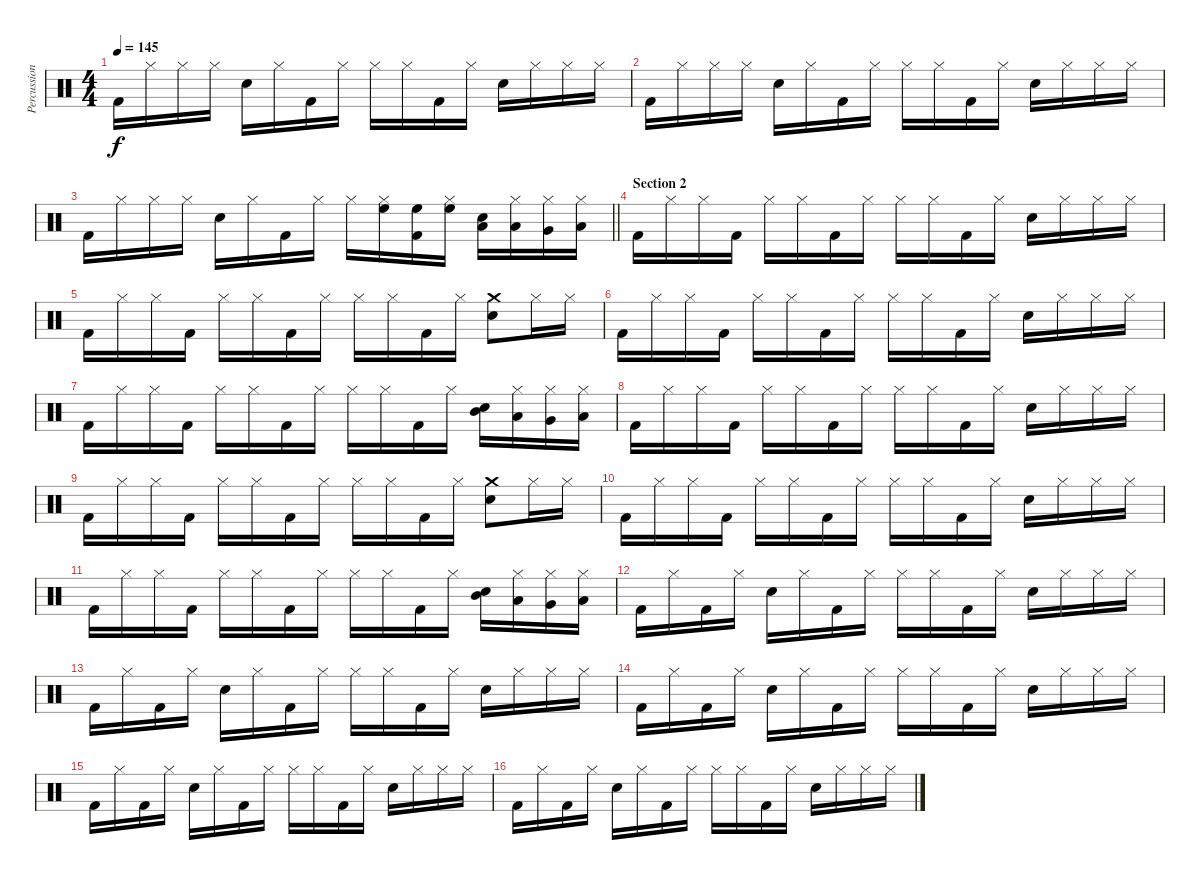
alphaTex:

\track ("Percussion" "Percussion") {instrument percussion}
\staff {score}
\articulation defaults
\ts (4 4)
\tempo 145
\clef neutral
\ks c "Kick (hit) 2".16{dy f} "Hi-Hat (closed)".16 "Hi-Hat (closed)".16 "Hi-Hat (closed)".16 "Snare (hit) 2".16 "Hi-Hat (closed)".16 "Kick (hit) 2".16 "Hi-Hat (closed)".16 "Hi-Hat (closed)".16 "Hi-Hat (closed)".16 "Kick (hit) 2".16 "Hi-Hat (closed)".16 "Snare (hit) 2".16 "Hi-Hat (closed)".16 "Hi-Hat (closed)".16 "Hi-Hat (closed)".16
|
"Kick (hit) 2".16 "Hi-Hat (closed)".16 "Hi-Hat (closed)".16 "Hi-Hat (closed)".16 "Snare (hit) 2".16 "Hi-Hat (closed)".16 "Kick (hit) 2".16 "Hi-Hat (closed)".16 "Hi-Hat (closed)".16 "Hi-Hat (closed)".16 "Kick (hit) 2".16 "Hi-Hat (closed)".16 "Snare (hit) 2".16 "Hi-Hat (closed)".16 "Hi-Hat (closed)".16 "Hi-Hat (closed)".16 |
\barLineRight lightlight "Kick (hit) 2".16 "Hi-Hat (closed)".16 "Hi-Hat (closed)".16 "Hi-Hat (closed)".16 "Snare (hit) 2".16 "Hi-Hat (closed)".16 "Kick (hit) 2".16 "Hi-Hat (closed)".16 "Hi-Hat (closed)".16
("High Floor Tom (hit)" "Hi-Hat (closed)").16 ("High Floor Tom (hit)" "Kick (hit) 2").16 ("High Floor Tom (hit)" "Hi-Hat (closed)").16 ("Low Tom (hit)" "Snare (hit) 2").16 ("Low Tom (hit)" "Hi-Hat (closed)").16 ("Very Low Tom (hit)" "Hi-Hat (closed)").16 ("Low Floor Tom (hit)" "Hi-Hat (closed)").16 |
\section ("" "Section 2")
"Kick (hit) 2".16 "Hi-Hat (closed)".16 "Hi-Hat (closed)".16 "Kick (hit) 2".16 "Hi-Hat (closed)".16 "Hi-Hat (closed)".16 "Kick (hit) 2".16 "Hi-Hat (closed)".16 "Hi-Hat (closed)".16 "Hi-Hat (closed)".16 "Kick (hit) 2".16 "Hi-Hat (closed)".16 "Snare (hit) 2".16 "Hi-Hat (closed)".16 "Hi-Hat (closed)".16 "Hi-Hat (closed)".16 |
"Kick (hit) 2".16 "Hi-Hat (closed)".16 "Hi-Hat (closed)".16 "Kick (hit) 2".16 "Hi-Hat (closed)".16 "Hi-Hat (closed)".16 "Kick (hit) 2".16 "Hi-Hat (closed)".16 "Hi-Hat (closed)".16 "Hi-Hat (closed)".16 "Kick (hit) 2".16 "Hi-Hat (closed)".16 ("Crash medium (hit)" "Snare (hit) 2").8 "Hi-Hat (closed)".16 "Hi-Hat (closed)".16 |
"Kick (hit) 2".16 "Hi-Hat (closed)".16 "Hi-Hat (closed)".16 "Kick (hit) 2".16 "Hi-Hat (closed)".16 "Hi-Hat (closed)".16 "Kick (hit) 2".16 "Hi-Hat (closed)".16 "Hi-Hat (closed)".16 "Hi-Hat (closed)".16 "Kick (hit) 2".16 "Hi-Hat (closed)".16 "Snare (hit) 2".16 "Hi-Hat (closed)".16 "Hi-Hat (closed)".16 "Hi-Hat (closed)".16 |
"Kick (hit) 2".16 "Hi-Hat (closed)".16 "Hi-Hat (closed)".16 "Kick (hit) 2".16 "Hi-Hat (closed)".16 "Hi-Hat (closed)".16 "Kick (hit) 2".16 "Hi-Hat (closed)".16 "Hi-Hat (closed)".16 "Hi-Hat (closed)".16 "Kick (hit) 2".16 "Hi-Hat (closed)".16 ("Mid Tom (hit)" "Snare (hit) 2").16 ("Low Tom (hit)" "Hi-Hat (closed)").16 ("Very Low Tom (hit)" "Hi-Hat (closed)").16 ("Low Floor Tom (hit)" "Hi-Hat (closed)").16 |
"Kick (hit) 2".16 "Hi-Hat (closed)".16 "Hi-Hat (closed)".16 "Kick (hit) 2".16 "Hi-Hat (closed)".16 "Hi-Hat (closed)".16 "Kick (hit) 2".16 "Hi-Hat (closed)".16 "Hi-Hat (closed)".16 "Hi-Hat (closed)".16 "Kick (hit) 2".16 "Hi-Hat (closed)".16 "Snare (hit) 2".16 "Hi-Hat (closed)".16 "Hi-Hat (closed)".16 "Hi-Hat (closed)".16 |
"Kick (hit) 2".16 "Hi-Hat (closed)".16 "Hi-Hat (closed)".16 "Kick (hit) 2".16 "Hi-Hat (closed)".16 "Hi-Hat (closed)".16 "Kick (hit) 2".16 "Hi-Hat (closed)".16 "Hi-Hat (closed)".16 "Hi-Hat (closed)".16 "Kick (hit) 2".16 "Hi-Hat (closed)".16 ("Crash medium (hit)" "Snare (hit) 2").8 "Hi-Hat (closed)".16 "Hi-Hat (closed)".16 |
"Kick (hit) 2".16 "Hi-Hat (closed)".16 "Hi-Hat (closed)".16 "Kick (hit) 2".16 "Hi-Hat (closed)".16 "Hi-Hat (closed)".16 "Kick (hit) 2".16 "Hi-Hat (closed)".16 "Hi-Hat (closed)".16 "Hi-Hat (closed)".16 "Kick (hit) 2".16 "Hi-Hat (closed)".16 "Snare (hit) 2".16 "Hi-Hat (closed)".16 "Hi-Hat (closed)".16 "Hi-Hat (closed)".16 |
"Kick (hit) 2".16 "Hi-Hat (closed)".16 "Hi-Hat (closed)".16 "Kick (hit) 2".16 "Hi-Hat (closed)".16 "Hi-Hat (closed)".16 "Kick (hit) 2".16 "Hi-Hat (closed)".16 "Hi-Hat (closed)".16 "Hi-Hat (closed)".16 "Kick (hit) 2".16 "Hi-Hat (closed)".16 ("Mid Tom (hit)" "Snare (hit) 2").16 ("Low Tom (hit)" "Hi-Hat (closed)").16 ("Very Low Tom (hit)" "Hi-Hat (closed)").16 ("Low Floor Tom (hit)" "Hi-Hat (closed)").16 |
"Kick (hit) 2".16 "Hi-Hat (closed)".16 "Kick (hit) 2".16 "Hi-Hat (closed)".16 "Snare (hit) 2".16 "Hi-Hat (closed)".16 "Kick (hit) 2".16 "Hi-Hat (closed)".16 "Hi-Hat (closed)".16 "Hi-Hat (closed)".16 "Kick (hit) 2".16 "Hi-Hat (closed)".16 "Snare (hit) 2".16 "Hi-Hat (closed)".16 "Hi-Hat (closed)".16 "Hi-Hat (closed)".16 |
"Kick (hit) 2".16 "Hi-Hat (closed)".16 "Kick (hit) 2".16 "Hi-Hat (closed)".16 "Snare (hit) 2".16 "Hi-Hat (closed)".16 "Kick (hit) 2".16 "Hi-Hat (closed)".16 "Hi-Hat (closed)".16 "Hi-Hat (closed)".16 "Kick (hit) 2".16 "Hi-Hat (closed)".16 "Snare (hit) 2".16 "Hi-Hat (closed)".16 "Hi-Hat (closed)".16 "Hi-Hat (closed)".16 |
"Kick (hit) 2".16 "Hi-Hat (closed)".16 "Kick (hit) 2".16 "Hi-Hat (closed)".16 "Snare (hit) 2".16 "Hi-Hat (closed)".16 "Kick (hit) 2".16 "Hi-Hat (closed)".16 "Hi-Hat (closed)".16 "Hi-Hat (closed)".16 "Kick (hit) 2".16 "Hi-Hat (closed)".16 "Snare (hit) 2".16 "Hi-Hat (closed)".16 "Hi-Hat (closed)".16 "Hi-Hat (closed)".16 |
"Kick (hit) 2".16 "Hi-Hat (closed)".16 "Kick (hit) 2".16 "Hi-Hat (closed)".16 "Snare (hit) 2".16 "Hi-Hat (closed)".16 "Kick (hit) 2".16 "Hi-Hat (closed)".16 "Hi-Hat (closed)".16 "Hi-Hat (closed)".16 "Kick (hit) 2".16 "Hi-Hat (closed)".16 "Snare (hit) 2".16 "Hi-Hat (closed)".16 "Hi-Hat (closed)".16 "Hi-Hat (closed)".16 |
"Kick (hit) 2".16 "Hi-Hat (closed)".16 "Kick (hit) 2".16 "Hi-Hat (closed)".16 "Snare (hit) 2".16 "Hi-Hat (closed)".16 "Kick (hit) 2".16 "Hi-Hat (closed)".16 "Hi-Hat (closed)".16 "Hi-Hat (closed)".16 "Kick (hit) 2".16 "Hi-Hat (closed)".16 "Snare (hit) 2".16 "Hi-Hat (closed)".16 "Hi-Hat (closed)".16 "Hi-Hat (closed)".16
